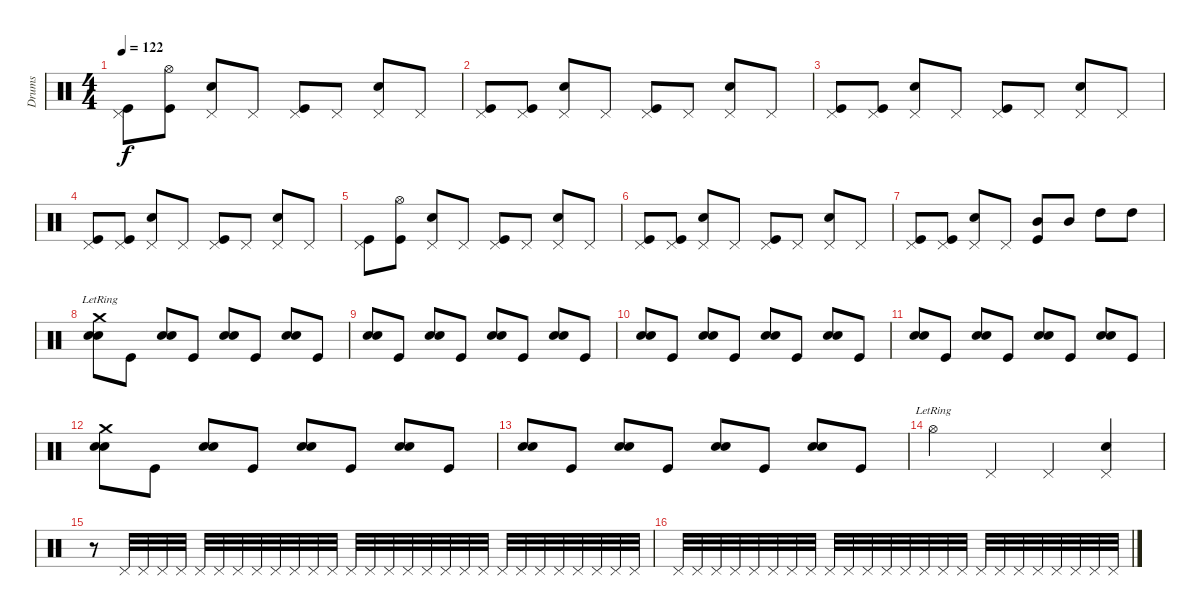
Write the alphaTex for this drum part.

\track ("Drums" "Drums") {instrument percussion}
\staff {score}
\articulation defaults
\ts (4 4)
\tempo 122
\clef neutral
\ks c
("Pedal Hi-Hat (hit)" "Kick (hit)").8{dy f} ("Hi-Hat (open)" "Kick (hit)").8 ("Pedal Hi-Hat (hit)" "Snare (hit) 2").8 "Pedal Hi-Hat (hit)".8 ("Pedal Hi-Hat (hit)" "Kick (hit)").8 "Pedal Hi-Hat (hit)".8 ("Pedal Hi-Hat (hit)" "Snare (hit) 2").8 "Pedal Hi-Hat (hit)".8 |
("Pedal Hi-Hat (hit)" "Kick (hit)").8 ("Pedal Hi-Hat (hit)" "Kick (hit)").8 ("Pedal Hi-Hat (hit)" "Snare (hit) 2").8 "Pedal Hi-Hat (hit)".8 ("Pedal Hi-Hat (hit)" "Kick (hit)").8 "Pedal Hi-Hat (hit)".8 ("Pedal Hi-Hat (hit)" "Snare (hit) 2").8 "Pedal Hi-Hat (hit)".8 |
("Pedal Hi-Hat (hit)" "Kick (hit)").8 ("Pedal Hi-Hat (hit)" "Kick (hit)").8 ("Pedal Hi-Hat (hit)" "Snare (hit) 2").8 "Pedal Hi-Hat (hit)".8 ("Pedal Hi-Hat (hit)" "Kick (hit)").8 "Pedal Hi-Hat (hit)".8 ("Pedal Hi-Hat (hit)" "Snare (hit) 2").8 "Pedal Hi-Hat (hit)".8 |
("Pedal Hi-Hat (hit)" "Kick (hit)").8 ("Pedal Hi-Hat (hit)" "Kick (hit)").8 ("Pedal Hi-Hat (hit)" "Snare (hit) 2").8 "Pedal Hi-Hat (hit)".8 ("Pedal Hi-Hat (hit)" "Kick (hit)").8 "Pedal Hi-Hat (hit)".8 ("Pedal Hi-Hat (hit)" "Snare (hit) 2").8 "Pedal Hi-Hat (hit)".8 |
("Pedal Hi-Hat (hit)" "Kick (hit)").8 ("Hi-Hat (open)" "Kick (hit)").8 ("Pedal Hi-Hat (hit)" "Snare (hit) 2").8 "Pedal Hi-Hat (hit)".8 ("Pedal Hi-Hat (hit)" "Kick (hit)").8 "Pedal Hi-Hat (hit)".8 ("Pedal Hi-Hat (hit)" "Snare (hit) 2").8 "Pedal Hi-Hat (hit)".8 |
("Pedal Hi-Hat (hit)" "Kick (hit)").8 ("Pedal Hi-Hat (hit)" "Kick (hit)").8 ("Pedal Hi-Hat (hit)" "Snare (hit) 2").8 "Pedal Hi-Hat (hit)".8 ("Pedal Hi-Hat (hit)" "Kick (hit)").8 "Pedal Hi-Hat (hit)".8 ("Pedal Hi-Hat (hit)" "Snare (hit) 2").8 "Pedal Hi-Hat (hit)".8 |
("Pedal Hi-Hat (hit)" "Kick (hit)").8 ("Pedal Hi-Hat (hit)" "Kick (hit)").8 ("Pedal Hi-Hat (hit)" "Snare (hit) 2").8 "Pedal Hi-Hat (hit)".8 ("Mid Tom (hit)" "Kick (hit)").8 "Mid Tom (hit)".8 "High Tom (hit)".8 "High Tom (hit)".8 |
("Snare (hit) 2" "Snare (hit) 2" "Crash medium (hit)"{lr}).8 "Kick (hit)".8 ("Snare (hit) 2" "Snare (hit) 2").8 "Kick (hit)".8 ("Snare (hit) 2" "Snare (hit) 2").8 "Kick (hit)".8 ("Snare (hit) 2" "Snare (hit) 2").8 "Kick (hit)".8 |
("Snare (hit) 2" "Snare (hit) 2").8 "Kick (hit)".8 ("Snare (hit) 2" "Snare (hit) 2").8 "Kick (hit)".8 ("Snare (hit) 2" "Snare (hit) 2").8 "Kick (hit)".8 ("Snare (hit) 2" "Snare (hit) 2").8 "Kick (hit)".8 |
("Snare (hit) 2" "Snare (hit) 2").8 "Kick (hit)".8 ("Snare (hit) 2" "Snare (hit) 2").8 "Kick (hit)".8 ("Snare (hit) 2" "Snare (hit) 2").8 "Kick (hit)".8 ("Snare (hit) 2" "Snare (hit) 2").8 "Kick (hit)".8 |
("Snare (hit) 2" "Snare (hit) 2").8 "Kick (hit)".8 ("Snare (hit) 2" "Snare (hit) 2").8 "Kick (hit)".8 ("Snare (hit) 2" "Snare (hit) 2").8 "Kick (hit)".8 ("Snare (hit) 2" "Snare (hit) 2").8 "Kick (hit)".8 |
("Snare (hit) 2" "Snare (hit) 2" "Crash medium (hit)").8 "Kick (hit)".8 ("Snare (hit) 2" "Snare (hit) 2").8 "Kick (hit)".8 ("Snare (hit) 2" "Snare (hit) 2").8 "Kick (hit)".8 ("Snare (hit) 2" "Snare (hit) 2").8 "Kick (hit)".8 |
("Snare (hit) 2" "Snare (hit) 2").8 "Kick (hit)".8 ("Snare (hit) 2" "Snare (hit) 2").8 "Kick (hit)".8 ("Snare (hit) 2" "Snare (hit) 2").8 "Kick (hit)".8 ("Snare (hit) 2" "Snare (hit) 2").8 "Kick (hit)".8 |
"Hi-Hat (open)"{lr}.4 "Pedal Hi-Hat (hit)".4 "Pedal Hi-Hat (hit)".4 ("Pedal Hi-Hat (hit)" "Snare (hit) 2").4 |
r.8 "Pedal Hi-Hat (hit)".32 "Pedal Hi-Hat (hit)".32 "Pedal Hi-Hat (hit)".32 "Pedal Hi-Hat (hit)".32 "Pedal Hi-Hat (hit)".32 "Pedal Hi-Hat (hit)".32 "Pedal Hi-Hat (hit)".32 "Pedal Hi-Hat (hit)".32 "Pedal Hi-Hat (hit)".32 "Pedal Hi-Hat (hit)".32 "Pedal Hi-Hat (hit)".32 "Pedal Hi-Hat (hit)".32 "Pedal Hi-Hat (hit)".32 "Pedal Hi-Hat (hit)".32 "Pedal Hi-Hat (hit)".32 "Pedal Hi-Hat (hit)".32 "Pedal Hi-Hat (hit)".32 "Pedal Hi-Hat (hit)".32 "Pedal Hi-Hat (hit)".32 "Pedal Hi-Hat (hit)".32 "Pedal Hi-Hat (hit)".32 "Pedal Hi-Hat (hit)".32 "Pedal Hi-Hat (hit)".32 "Pedal Hi-Hat (hit)".32 "Pedal Hi-Hat (hit)".32 "Pedal Hi-Hat (hit)".32 "Pedal Hi-Hat (hit)".32 "Pedal Hi-Hat (hit)".32 |
"Pedal Hi-Hat (hit)".32 "Pedal Hi-Hat (hit)".32 "Pedal Hi-Hat (hit)".32 "Pedal Hi-Hat (hit)".32 "Pedal Hi-Hat (hit)".32 "Pedal Hi-Hat (hit)".32 "Pedal Hi-Hat (hit)".32 "Pedal Hi-Hat (hit)".32 "Pedal Hi-Hat (hit)".32 "Pedal Hi-Hat (hit)".32 "Pedal Hi-Hat (hit)".32 "Pedal Hi-Hat (hit)".32 "Pedal Hi-Hat (hit)".32 "Pedal Hi-Hat (hit)".32 "Pedal Hi-Hat (hit)".32 "Pedal Hi-Hat (hit)".32 "Pedal Hi-Hat (hit)".32 "Pedal Hi-Hat (hit)".32 "Pedal Hi-Hat (hit)".32 "Pedal Hi-Hat (hit)".32 "Pedal Hi-Hat (hit)".32 "Pedal Hi-Hat (hit)".32 "Pedal Hi-Hat (hit)".32 "Pedal Hi-Hat (hit)".32
